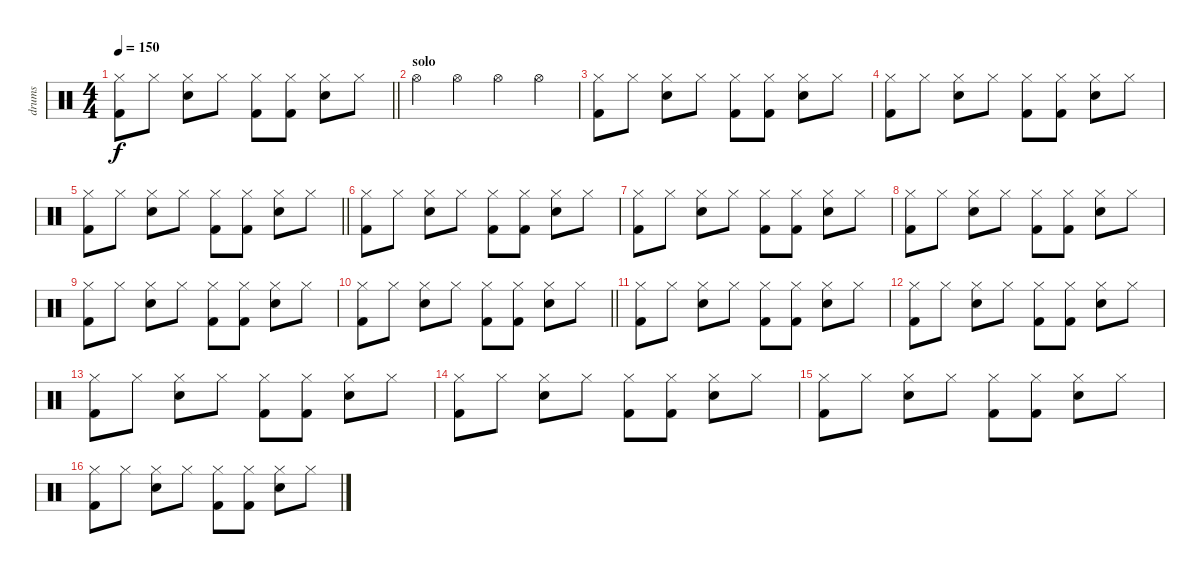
\track ("drums" "drums") {instrument percussion}
\staff {score}
\articulation defaults
\ts (4 4)
\tempo 150
\clef neutral
\barLineRight lightlight
\ks c
("Kick (hit) 2" "Hi-Hat (closed)").8{dy f} "Hi-Hat (closed)".8 ("Snare (hit) 2" "Hi-Hat (closed)").8 "Hi-Hat (closed)".8 ("Kick (hit) 2" "Hi-Hat (closed)").8 ("Kick (hit) 2" "Hi-Hat (closed)").8 ("Snare (hit) 2" "Hi-Hat (closed)").8 "Hi-Hat (closed)".8 |
\section ("" "solo")
"Hi-Hat (open)".4 "Hi-Hat (open)".4 "Hi-Hat (open)".4 "Hi-Hat (open)".4 |
("Kick (hit) 2" "Hi-Hat (closed)").8 "Hi-Hat (closed)".8 ("Snare (hit) 2" "Hi-Hat (closed)").8 "Hi-Hat (closed)".8 ("Kick (hit) 2" "Hi-Hat (closed)").8 ("Kick (hit) 2" "Hi-Hat (closed)").8 ("Snare (hit) 2" "Hi-Hat (closed)").8 "Hi-Hat (closed)".8 |
("Kick (hit) 2" "Hi-Hat (closed)").8 "Hi-Hat (closed)".8 ("Snare (hit) 2" "Hi-Hat (closed)").8 "Hi-Hat (closed)".8 ("Kick (hit) 2" "Hi-Hat (closed)").8 ("Kick (hit) 2" "Hi-Hat (closed)").8 ("Snare (hit) 2" "Hi-Hat (closed)").8 "Hi-Hat (closed)".8 |
\barLineRight lightlight
("Kick (hit) 2" "Hi-Hat (closed)").8 "Hi-Hat (closed)".8 ("Snare (hit) 2" "Hi-Hat (closed)").8 "Hi-Hat (closed)".8 ("Kick (hit) 2" "Hi-Hat (closed)").8 ("Kick (hit) 2" "Hi-Hat (closed)").8 ("Snare (hit) 2" "Hi-Hat (closed)").8 "Hi-Hat (closed)".8 |
("Kick (hit) 2" "Hi-Hat (closed)").8 "Hi-Hat (closed)".8 ("Snare (hit) 2" "Hi-Hat (closed)").8 "Hi-Hat (closed)".8 ("Kick (hit) 2" "Hi-Hat (closed)").8 ("Kick (hit) 2" "Hi-Hat (closed)").8 ("Snare (hit) 2" "Hi-Hat (closed)").8 "Hi-Hat (closed)".8 |
("Kick (hit) 2" "Hi-Hat (closed)").8 "Hi-Hat (closed)".8 ("Snare (hit) 2" "Hi-Hat (closed)").8 "Hi-Hat (closed)".8 ("Kick (hit) 2" "Hi-Hat (closed)").8 ("Kick (hit) 2" "Hi-Hat (closed)").8 ("Snare (hit) 2" "Hi-Hat (closed)").8 "Hi-Hat (closed)".8 |
("Kick (hit) 2" "Hi-Hat (closed)").8 "Hi-Hat (closed)".8 ("Snare (hit) 2" "Hi-Hat (closed)").8 "Hi-Hat (closed)".8 ("Kick (hit) 2" "Hi-Hat (closed)").8 ("Kick (hit) 2" "Hi-Hat (closed)").8 ("Snare (hit) 2" "Hi-Hat (closed)").8 "Hi-Hat (closed)".8 |
("Kick (hit) 2" "Hi-Hat (closed)").8 "Hi-Hat (closed)".8 ("Snare (hit) 2" "Hi-Hat (closed)").8 "Hi-Hat (closed)".8 ("Kick (hit) 2" "Hi-Hat (closed)").8 ("Kick (hit) 2" "Hi-Hat (closed)").8 ("Snare (hit) 2" "Hi-Hat (closed)").8 "Hi-Hat (closed)".8 |
\barLineRight lightlight
("Kick (hit) 2" "Hi-Hat (closed)").8 "Hi-Hat (closed)".8 ("Snare (hit) 2" "Hi-Hat (closed)").8 "Hi-Hat (closed)".8 ("Kick (hit) 2" "Hi-Hat (closed)").8 ("Kick (hit) 2" "Hi-Hat (closed)").8 ("Snare (hit) 2" "Hi-Hat (closed)").8 "Hi-Hat (closed)".8 |
("Kick (hit) 2" "Hi-Hat (closed)").8 "Hi-Hat (closed)".8 ("Snare (hit) 2" "Hi-Hat (closed)").8 "Hi-Hat (closed)".8 ("Kick (hit) 2" "Hi-Hat (closed)").8 ("Kick (hit) 2" "Hi-Hat (closed)").8 ("Snare (hit) 2" "Hi-Hat (closed)").8 "Hi-Hat (closed)".8 |
("Kick (hit) 2" "Hi-Hat (closed)").8 "Hi-Hat (closed)".8 ("Snare (hit) 2" "Hi-Hat (closed)").8 "Hi-Hat (closed)".8 ("Kick (hit) 2" "Hi-Hat (closed)").8 ("Kick (hit) 2" "Hi-Hat (closed)").8 ("Snare (hit) 2" "Hi-Hat (closed)").8 "Hi-Hat (closed)".8 |
("Kick (hit) 2" "Hi-Hat (closed)").8 "Hi-Hat (closed)".8 ("Snare (hit) 2" "Hi-Hat (closed)").8 "Hi-Hat (closed)".8 ("Kick (hit) 2" "Hi-Hat (closed)").8 ("Kick (hit) 2" "Hi-Hat (closed)").8 ("Snare (hit) 2" "Hi-Hat (closed)").8 "Hi-Hat (closed)".8 |
("Kick (hit) 2" "Hi-Hat (closed)").8 "Hi-Hat (closed)".8 ("Snare (hit) 2" "Hi-Hat (closed)").8 "Hi-Hat (closed)".8 ("Kick (hit) 2" "Hi-Hat (closed)").8 ("Kick (hit) 2" "Hi-Hat (closed)").8 ("Snare (hit) 2" "Hi-Hat (closed)").8 "Hi-Hat (closed)".8 |
("Kick (hit) 2" "Hi-Hat (closed)").8 "Hi-Hat (closed)".8 ("Snare (hit) 2" "Hi-Hat (closed)").8 "Hi-Hat (closed)".8 ("Kick (hit) 2" "Hi-Hat (closed)").8 ("Kick (hit) 2" "Hi-Hat (closed)").8 ("Snare (hit) 2" "Hi-Hat (closed)").8 "Hi-Hat (closed)".8 |
("Kick (hit) 2" "Hi-Hat (closed)").8 "Hi-Hat (closed)".8 ("Snare (hit) 2" "Hi-Hat (closed)").8 "Hi-Hat (closed)".8 ("Kick (hit) 2" "Hi-Hat (closed)").8 ("Kick (hit) 2" "Hi-Hat (closed)").8 ("Snare (hit) 2" "Hi-Hat (closed)").8 "Hi-Hat (closed)".8
